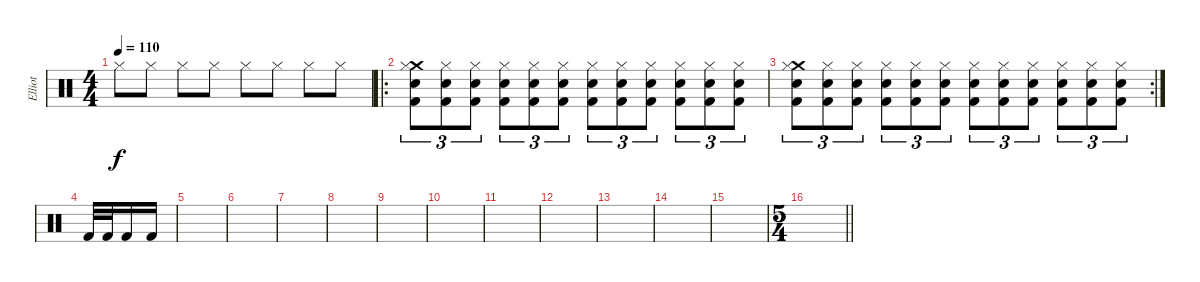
\track ("Elliot" "Elliot") {instrument percussion}
\staff {score}
\articulation defaults
\ts (4 4)
\tempo 110
\clef neutral
\ks c "Hi-Hat (closed)".8{dy f} "Hi-Hat (closed)".8 "Hi-Hat (closed)".8 "Hi-Hat (closed)".8 "Hi-Hat (closed)".8 "Hi-Hat (closed)".8 "Hi-Hat (closed)".8 "Hi-Hat (closed)".8
|
\ro
("Crash medium (hit)" "Hi-Hat (closed)" "Electric Snare (hit)" "Kick (hit) 2").8{tu (3 2)} ("Hi-Hat (closed)" "Electric Snare (hit)" "Kick (hit) 2").8{tu (3 2)} ("Hi-Hat (closed)" "Electric Snare (hit)" "Kick (hit) 2").8{tu (3 2)} ("Hi-Hat (closed)" "Electric Snare (hit)" "Kick (hit) 2").8{tu (3 2)} ("Hi-Hat (closed)" "Electric Snare (hit)" "Kick (hit) 2").8{tu (3 2)} ("Hi-Hat (closed)" "Electric Snare (hit)" "Kick (hit) 2").8{tu (3 2)} ("Hi-Hat (closed)" "Electric Snare (hit)" "Kick (hit) 2").8{tu (3 2)} ("Hi-Hat (closed)" "Electric Snare (hit)" "Kick (hit) 2").8{tu (3 2)} ("Hi-Hat (closed)" "Electric Snare (hit)" "Kick (hit) 2").8{tu (3 2)} ("Hi-Hat (closed)" "Electric Snare (hit)" "Kick (hit) 2").8{tu (3 2)} ("Hi-Hat (closed)" "Electric Snare (hit)" "Kick (hit) 2").8{tu (3 2)} ("Hi-Hat (closed)" "Electric Snare (hit)" "Kick (hit) 2").8{tu (3 2)} |
\rc 2
("Crash medium (hit)" "Hi-Hat (closed)" "Electric Snare (hit)" "Kick (hit) 2").8{tu (3 2)} ("Hi-Hat (closed)" "Electric Snare (hit)" "Kick (hit) 2").8{tu (3 2)} ("Hi-Hat (closed)" "Electric Snare (hit)" "Kick (hit) 2").8{tu (3 2)} ("Hi-Hat (closed)" "Electric Snare (hit)" "Kick (hit) 2").8{tu (3 2)} ("Hi-Hat (closed)" "Electric Snare (hit)" "Kick (hit) 2").8{tu (3 2)} ("Hi-Hat (closed)" "Electric Snare (hit)" "Kick (hit) 2").8{tu (3 2)} ("Hi-Hat (closed)" "Electric Snare (hit)" "Kick (hit) 2").8{tu (3 2)} ("Hi-Hat (closed)" "Electric Snare (hit)" "Kick (hit) 2").8{tu (3 2)} ("Hi-Hat (closed)" "Electric Snare (hit)" "Kick (hit) 2").8{tu (3 2)} ("Hi-Hat (closed)" "Electric Snare (hit)" "Kick (hit) 2").8{tu (3 2)} ("Hi-Hat (closed)" "Electric Snare (hit)" "Kick (hit) 2").8{tu (3 2)} ("Hi-Hat (closed)" "Electric Snare (hit)" "Kick (hit) 2").8{tu (3 2)} |
"Kick (hit) 2".32 "Kick (hit) 2".32 "Kick (hit) 2".16 "Kick (hit) 2".16 |
|
|
|
|
|
|
|
|
|
|
|
\ts (5 4)
\barLineRight lightlight
